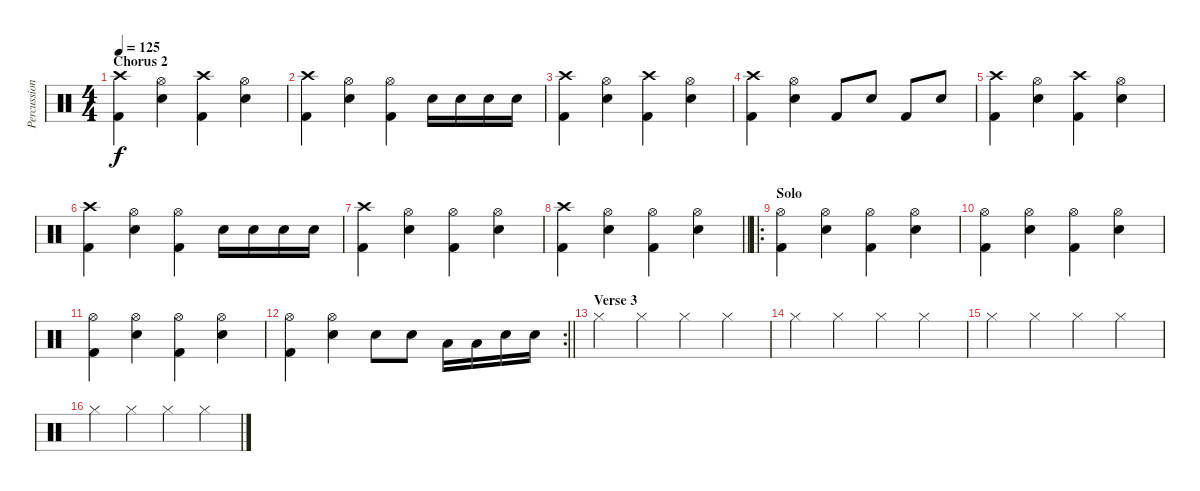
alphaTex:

\track ("Percussion" "Percussion") {instrument percussion}
\staff {score}
\articulation defaults
\ts (4 4)
\section ("" "Chorus 2")
\tempo 125
\clef neutral
\ks c
("Crash high (hit)" "Kick (hit) 2").4{dy f} ("Hi-Hat (open)" "Snare (hit) 2").4 ("Crash high (hit)" "Kick (hit) 2").4 ("Hi-Hat (open)" "Snare (hit) 2").4 |
("Crash high (hit)" "Kick (hit) 2").4 ("Hi-Hat (open)" "Snare (hit) 2").4 ("Hi-Hat (open)" "Kick (hit) 2").4 "Snare (hit) 2".16 "Snare (hit) 2".16 "Snare (hit) 2".16 "Snare (hit) 2".16 |
("Crash high (hit)" "Kick (hit) 2").4 ("Hi-Hat (open)" "Snare (hit) 2").4 ("Crash high (hit)" "Kick (hit) 2").4 ("Hi-Hat (open)" "Snare (hit) 2").4 |
("Crash high (hit)" "Kick (hit) 2").4 ("Hi-Hat (open)" "Snare (hit) 2").4 "Kick (hit) 2".8 "Snare (hit) 2".8 "Kick (hit) 2".8 "Snare (hit) 2".8 |
("Crash high (hit)" "Kick (hit) 2").4 ("Hi-Hat (open)" "Snare (hit) 2").4 ("Crash high (hit)" "Kick (hit) 2").4 ("Hi-Hat (open)" "Snare (hit) 2").4 |
("Crash high (hit)" "Kick (hit) 2").4 ("Hi-Hat (open)" "Snare (hit) 2").4 ("Hi-Hat (open)" "Kick (hit) 2").4 "Snare (hit) 2".16 "Snare (hit) 2".16 "Snare (hit) 2".16 "Snare (hit) 2".16 |
("Crash high (hit)" "Kick (hit) 2").4 ("Hi-Hat (open)" "Snare (hit) 2").4 ("Hi-Hat (open)" "Kick (hit) 2").4 ("Hi-Hat (open)" "Snare (hit) 2").4 |
\barLineRight lightlight
("Crash high (hit)" "Kick (hit) 2").4 ("Hi-Hat (open)" "Snare (hit) 2").4 ("Hi-Hat (open)" "Kick (hit) 2").4 ("Hi-Hat (open)" "Snare (hit) 2").4 |
\ro
\section ("" "Solo")
("Hi-Hat (open)" "Kick (hit) 2").4 ("Hi-Hat (open)" "Snare (hit) 2").4 ("Hi-Hat (open)" "Kick (hit) 2").4 ("Hi-Hat (open)" "Snare (hit) 2").4 |
("Hi-Hat (open)" "Kick (hit) 2").4 ("Hi-Hat (open)" "Snare (hit) 2").4 ("Hi-Hat (open)" "Kick (hit) 2").4 ("Hi-Hat (open)" "Snare (hit) 2").4 |
("Hi-Hat (open)" "Kick (hit) 2").4 ("Hi-Hat (open)" "Snare (hit) 2").4 ("Hi-Hat (open)" "Kick (hit) 2").4 ("Hi-Hat (open)" "Snare (hit) 2").4 |
\rc 2
\barLineRight lightlight
("Hi-Hat (open)" "Kick (hit) 2").4 ("Hi-Hat (open)" "Snare (hit) 2").4 "Snare (hit) 2".8 "Snare (hit) 2".8 "Low Floor Tom (hit)".16 "Low Floor Tom (hit)".16 "Snare (hit) 2".16 "Snare (hit) 2".16 |
\section ("" "Verse 3")
"Hi-Hat (closed)".4 "Hi-Hat (closed)".4 "Hi-Hat (closed)".4 "Hi-Hat (closed)".4 |
"Hi-Hat (closed)".4 "Hi-Hat (closed)".4 "Hi-Hat (closed)".4 "Hi-Hat (closed)".4 |
"Hi-Hat (closed)".4 "Hi-Hat (closed)".4 "Hi-Hat (closed)".4 "Hi-Hat (closed)".4 |
"Hi-Hat (closed)".4 "Hi-Hat (closed)".4 "Hi-Hat (closed)".4 "Hi-Hat (closed)".4
